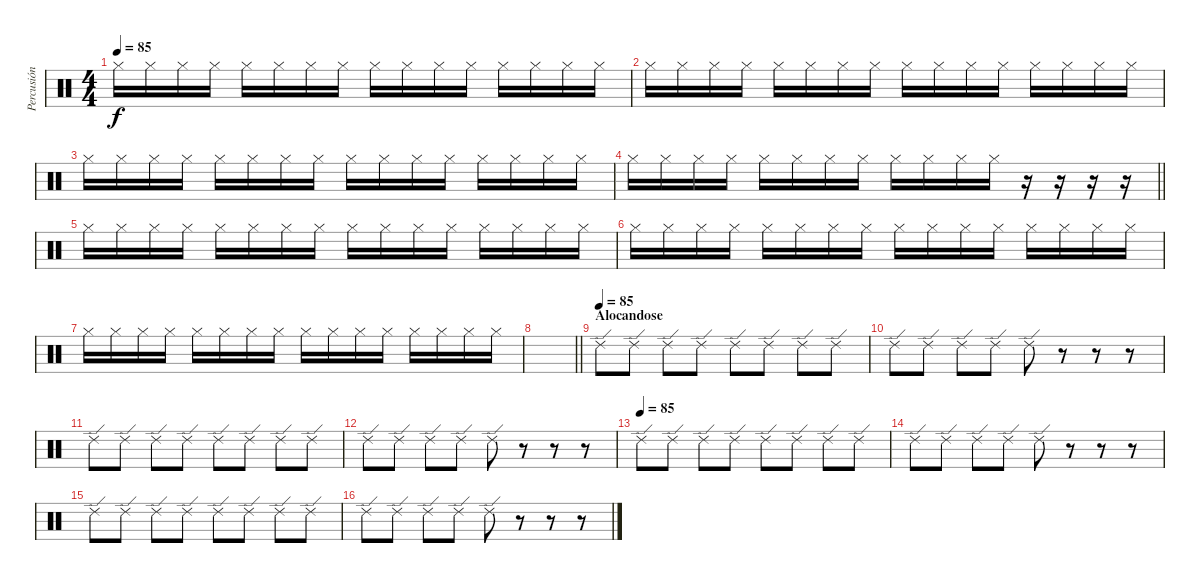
\track ("Percusión" "Percusión") {instrument percussion}
\staff {score}
\articulation defaults
\ts (4 4)
\tempo 85
\clef neutral
\ks c "Hi-Hat (closed)".16{dy f} "Hi-Hat (closed)".16 "Hi-Hat (closed)".16 "Hi-Hat (closed)".16 "Hi-Hat (closed)".16 "Hi-Hat (closed)".16 "Hi-Hat (closed)".16 "Hi-Hat (closed)".16 "Hi-Hat (closed)".16 "Hi-Hat (closed)".16 "Hi-Hat (closed)".16 "Hi-Hat (closed)".16 "Hi-Hat (closed)".16 "Hi-Hat (closed)".16 "Hi-Hat (closed)".16 "Hi-Hat (closed)".16
|
"Hi-Hat (closed)".16 "Hi-Hat (closed)".16 "Hi-Hat (closed)".16 "Hi-Hat (closed)".16 "Hi-Hat (closed)".16 "Hi-Hat (closed)".16 "Hi-Hat (closed)".16 "Hi-Hat (closed)".16 "Hi-Hat (closed)".16 "Hi-Hat (closed)".16 "Hi-Hat (closed)".16 "Hi-Hat (closed)".16 "Hi-Hat (closed)".16 "Hi-Hat (closed)".16 "Hi-Hat (closed)".16 "Hi-Hat (closed)".16 |
"Hi-Hat (closed)".16 "Hi-Hat (closed)".16 "Hi-Hat (closed)".16 "Hi-Hat (closed)".16 "Hi-Hat (closed)".16 "Hi-Hat (closed)".16 "Hi-Hat (closed)".16 "Hi-Hat (closed)".16 "Hi-Hat (closed)".16 "Hi-Hat (closed)".16 "Hi-Hat (closed)".16 "Hi-Hat (closed)".16 "Hi-Hat (closed)".16 "Hi-Hat (closed)".16 "Hi-Hat (closed)".16 "Hi-Hat (closed)".16 |
\barLineRight lightlight "Hi-Hat (closed)".16 "Hi-Hat (closed)".16 "Hi-Hat (closed)".16 "Hi-Hat (closed)".16 "Hi-Hat (closed)".16 "Hi-Hat (closed)".16 "Hi-Hat (closed)".16 "Hi-Hat (closed)".16 "Hi-Hat (closed)".16 "Hi-Hat (closed)".16 "Hi-Hat (closed)".16 "Hi-Hat (closed)".16
r.16 r.16 r.16 r.16 |
"Hi-Hat (closed)".16 "Hi-Hat (closed)".16 "Hi-Hat (closed)".16 "Hi-Hat (closed)".16 "Hi-Hat (closed)".16 "Hi-Hat (closed)".16 "Hi-Hat (closed)".16 "Hi-Hat (closed)".16 "Hi-Hat (closed)".16 "Hi-Hat (closed)".16 "Hi-Hat (closed)".16 "Hi-Hat (closed)".16 "Hi-Hat (closed)".16 "Hi-Hat (closed)".16 "Hi-Hat (closed)".16 "Hi-Hat (closed)".16 |
"Hi-Hat (closed)".16 "Hi-Hat (closed)".16 "Hi-Hat (closed)".16 "Hi-Hat (closed)".16 "Hi-Hat (closed)".16 "Hi-Hat (closed)".16 "Hi-Hat (closed)".16 "Hi-Hat (closed)".16 "Hi-Hat (closed)".16 "Hi-Hat (closed)".16 "Hi-Hat (closed)".16 "Hi-Hat (closed)".16 "Hi-Hat (closed)".16 "Hi-Hat (closed)".16 "Hi-Hat (closed)".16 "Hi-Hat (closed)".16 |
"Hi-Hat (closed)".16 "Hi-Hat (closed)".16 "Hi-Hat (closed)".16 "Hi-Hat (closed)".16 "Hi-Hat (closed)".16 "Hi-Hat (closed)".16 "Hi-Hat (closed)".16 "Hi-Hat (closed)".16 "Hi-Hat (closed)".16 "Hi-Hat (closed)".16 "Hi-Hat (closed)".16 "Hi-Hat (closed)".16 "Hi-Hat (closed)".16 "Hi-Hat (closed)".16 "Hi-Hat (closed)".16 "Hi-Hat (closed)".16 |
\barLineRight lightlight
|
\section ("" "Alocandose")
\tempo (85)
"Ride (edge) 2".8 "Ride (edge) 2".8 "Ride (edge) 2".8 "Ride (edge) 2".8 "Ride (edge) 2".8 "Ride (edge) 2".8 "Ride (edge) 2".8 "Ride (edge) 2".8 |
"Ride (edge) 2".8 "Ride (edge) 2".8 "Ride (edge) 2".8 "Ride (edge) 2".8 "Ride (edge) 2".8 r.8 r.8 r.8 |
"Ride (edge) 2".8 "Ride (edge) 2".8 "Ride (edge) 2".8 "Ride (edge) 2".8 "Ride (edge) 2".8 "Ride (edge) 2".8 "Ride (edge) 2".8 "Ride (edge) 2".8 |
"Ride (edge) 2".8 "Ride (edge) 2".8 "Ride (edge) 2".8 "Ride (edge) 2".8 "Ride (edge) 2".8 r.8 r.8 r.8 |
\tempo (85)
"Ride (edge) 2".8 "Ride (edge) 2".8 "Ride (edge) 2".8 "Ride (edge) 2".8 "Ride (edge) 2".8 "Ride (edge) 2".8 "Ride (edge) 2".8 "Ride (edge) 2".8 |
"Ride (edge) 2".8 "Ride (edge) 2".8 "Ride (edge) 2".8 "Ride (edge) 2".8 "Ride (edge) 2".8 r.8 r.8 r.8 |
"Ride (edge) 2".8 "Ride (edge) 2".8 "Ride (edge) 2".8 "Ride (edge) 2".8 "Ride (edge) 2".8 "Ride (edge) 2".8 "Ride (edge) 2".8 "Ride (edge) 2".8 |
"Ride (edge) 2".8 "Ride (edge) 2".8 "Ride (edge) 2".8 "Ride (edge) 2".8 "Ride (edge) 2".8 r.8 r.8 r.8
